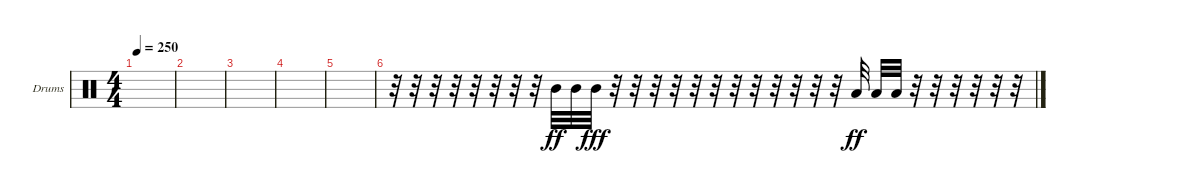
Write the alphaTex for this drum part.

\defaultSystemsLayout 4
\bracketExtendMode groupsimilarinstruments
\firstSystemTrackNameOrientation horizontal
\otherSystemsTrackNameOrientation horizontal
\track ("Драмки2" "Drums") {instrument percussion}
\staff {score}
\articulation defaults
\ts (4 4)
\tempo 250
\clef neutral
\ks c
|
|
|
|
|
r.32 r.32 r.32 r.32 r.32 r.32 r.32 r.32 "Mid Tom (hit)".32{dy ff} "Mid Tom (hit)".32 "Mid Tom (hit)".32{dy fff} r.32 r.32 r.32 r.32 r.32 r.32 r.32 r.32 r.32 r.32 r.32 r.32 "Low Tom (hit)".32{dy ff} "Low Tom (hit)".32 "Low Tom (hit)".32 r.32 r.32 r.32 r.32 r.32 r.32
